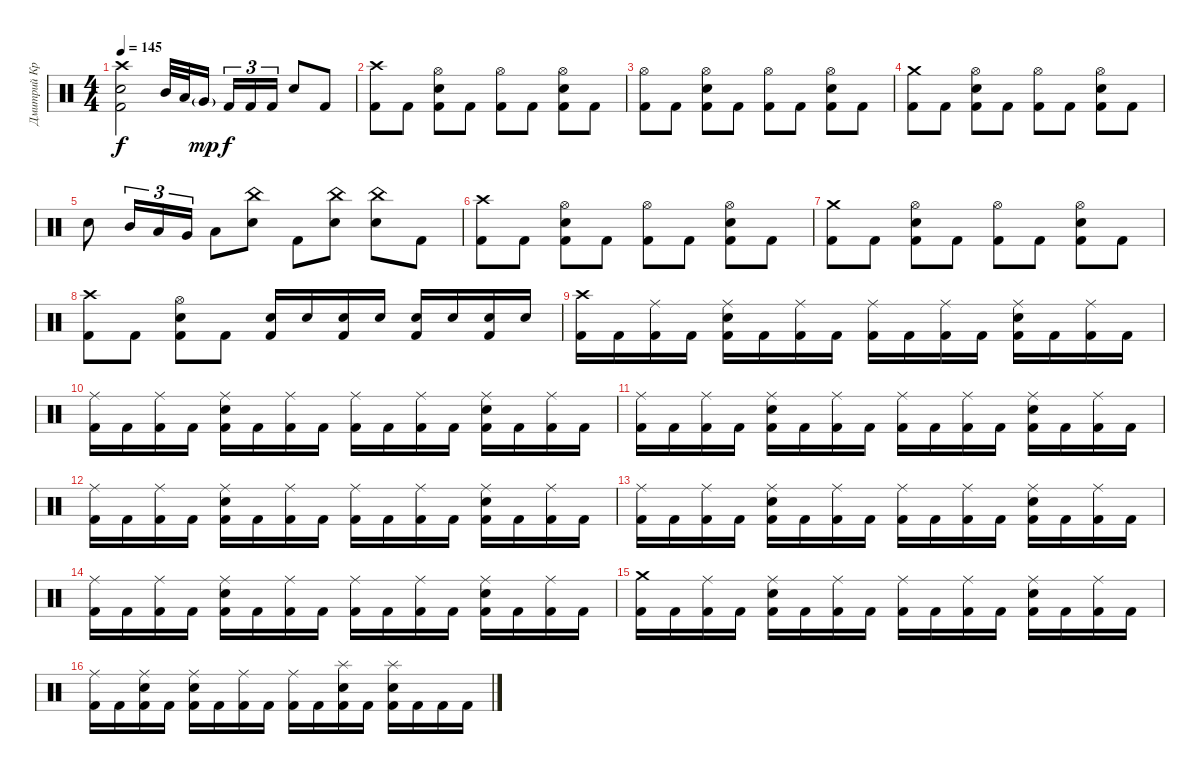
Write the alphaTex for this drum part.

\track ("Дмитрий Кривенков" "Дмитрий Кр") {instrument percussion}
\staff {score}
\articulation defaults
\ts (4 4)
\tempo 145
\clef neutral
\ks c
("Crash high (hit)" "Electric Snare (hit)" "Kick (hit) 2").2{dy f} "Mid Tom (hit)".32 "Low Tom (hit)".32 "Very Low Tom (hit)"{g}.16{dy mp beam splitsecondary} "Kick (hit) 2".16{tu (3 2) dy f} "Kick (hit) 2".16{tu (3 2)} "Kick (hit) 2".16{tu (3 2)} "Electric Snare (hit)".8 "Kick (hit) 2".8 |
("Crash high (hit)" "Kick (hit) 2").8 "Kick (hit) 2".8 ("Hi-Hat (open)" "Electric Snare (hit)" "Kick (hit) 2").8 "Kick (hit) 2".8 ("Hi-Hat (open)" "Kick (hit) 2").8 "Kick (hit) 2".8 ("Hi-Hat (open)" "Electric Snare (hit)" "Kick (hit) 2").8 "Kick (hit) 2".8 |
("Hi-Hat (open)" "Kick (hit) 2").8 "Kick (hit) 2".8 ("Hi-Hat (open)" "Electric Snare (hit)" "Kick (hit) 2").8 "Kick (hit) 2".8 ("Hi-Hat (open)" "Kick (hit) 2").8 "Kick (hit) 2".8 ("Hi-Hat (open)" "Electric Snare (hit)" "Kick (hit) 2").8 "Kick (hit) 2".8 |
("Crash medium (hit)" "Kick (hit) 2").8 "Kick (hit) 2".8 ("Hi-Hat (open)" "Electric Snare (hit)" "Kick (hit) 2").8 "Kick (hit) 2".8 ("Hi-Hat (open)" "Kick (hit) 2").8 "Kick (hit) 2".8 ("Hi-Hat (open)" "Electric Snare (hit)" "Kick (hit) 2").8 "Kick (hit) 2".8 |
"Electric Snare (hit)".8 "Mid Tom (hit)".16{tu (3 2)} "Low Tom (hit)".16{tu (3 2)} "Very Low Tom (hit)".16{tu (3 2)} "Low Floor Tom (hit)".8 ("China (hit)" "Electric Snare (hit)").8 "Kick (hit) 2".8 ("China (hit)" "Electric Snare (hit)").8 ("China (hit)" "Electric Snare (hit)").8 "Kick (hit) 2".8 |
("Crash high (hit)" "Kick (hit) 2").8 "Kick (hit) 2".8 ("Hi-Hat (open)" "Electric Snare (hit)" "Kick (hit) 2").8 "Kick (hit) 2".8 ("Hi-Hat (open)" "Kick (hit) 2").8 "Kick (hit) 2".8 ("Hi-Hat (open)" "Electric Snare (hit)" "Kick (hit) 2").8 "Kick (hit) 2".8 |
("Crash medium (hit)" "Kick (hit) 2").8 "Kick (hit) 2".8 ("Hi-Hat (open)" "Electric Snare (hit)" "Kick (hit) 2").8 "Kick (hit) 2".8 ("Hi-Hat (open)" "Kick (hit) 2").8 "Kick (hit) 2".8 ("Hi-Hat (open)" "Electric Snare (hit)" "Kick (hit) 2").8 "Kick (hit) 2".8 |
("Crash high (hit)" "Kick (hit) 2").8 "Kick (hit) 2".8 ("Hi-Hat (open)" "Electric Snare (hit)" "Kick (hit) 2").8 "Kick (hit) 2".8 ("Electric Snare (hit)" "Kick (hit) 2").16 "Electric Snare (hit)".16 ("Electric Snare (hit)" "Kick (hit) 2").16 "Electric Snare (hit)".16 ("Electric Snare (hit)" "Kick (hit) 2").16 "Electric Snare (hit)".16 ("Electric Snare (hit)" "Kick (hit) 2").16 "Electric Snare (hit)".16 |
("Crash high (hit)" "Kick (hit) 2").16 "Kick (hit) 2".16 ("Ride (middle)" "Kick (hit) 2").16 "Kick (hit) 2".16 ("Ride (middle)" "Electric Snare (hit)" "Kick (hit) 2").16 "Kick (hit) 2".16 ("Ride (middle)" "Kick (hit) 2").16 "Kick (hit) 2".16 ("Ride (middle)" "Kick (hit) 2").16 "Kick (hit) 2".16 ("Ride (middle)" "Kick (hit) 2").16 "Kick (hit) 2".16 ("Ride (middle)" "Electric Snare (hit)" "Kick (hit) 2").16 "Kick (hit) 2".16 ("Ride (middle)" "Kick (hit) 2").16 "Kick (hit) 2".16 |
("Ride (middle)" "Kick (hit) 2").16 "Kick (hit) 2".16 ("Ride (middle)" "Kick (hit) 2").16 "Kick (hit) 2".16 ("Ride (middle)" "Electric Snare (hit)" "Kick (hit) 2").16 "Kick (hit) 2".16 ("Ride (middle)" "Kick (hit) 2").16 "Kick (hit) 2".16 ("Ride (middle)" "Kick (hit) 2").16 "Kick (hit) 2".16 ("Ride (middle)" "Kick (hit) 2").16 "Kick (hit) 2".16 ("Ride (middle)" "Electric Snare (hit)" "Kick (hit) 2").16 "Kick (hit) 2".16 ("Ride (middle)" "Kick (hit) 2").16 "Kick (hit) 2".16 |
("Ride (middle)" "Kick (hit) 2").16 "Kick (hit) 2".16 ("Ride (middle)" "Kick (hit) 2").16 "Kick (hit) 2".16 ("Ride (middle)" "Electric Snare (hit)" "Kick (hit) 2").16 "Kick (hit) 2".16 ("Ride (middle)" "Kick (hit) 2").16 "Kick (hit) 2".16 ("Ride (middle)" "Kick (hit) 2").16 "Kick (hit) 2".16 ("Ride (middle)" "Kick (hit) 2").16 "Kick (hit) 2".16 ("Ride (middle)" "Electric Snare (hit)" "Kick (hit) 2").16 "Kick (hit) 2".16 ("Ride (middle)" "Kick (hit) 2").16 "Kick (hit) 2".16 |
("Ride (middle)" "Kick (hit) 2").16 "Kick (hit) 2".16 ("Ride (middle)" "Kick (hit) 2").16 "Kick (hit) 2".16 ("Ride (middle)" "Electric Snare (hit)" "Kick (hit) 2").16 "Kick (hit) 2".16 ("Ride (middle)" "Kick (hit) 2").16 "Kick (hit) 2".16 ("Ride (middle)" "Kick (hit) 2").16 "Kick (hit) 2".16 ("Ride (middle)" "Kick (hit) 2").16 "Kick (hit) 2".16 ("Ride (middle)" "Electric Snare (hit)" "Kick (hit) 2").16 "Kick (hit) 2".16 ("Ride (middle)" "Kick (hit) 2").16 "Kick (hit) 2".16 |
("Ride (middle)" "Kick (hit) 2").16 "Kick (hit) 2".16 ("Ride (middle)" "Kick (hit) 2").16 "Kick (hit) 2".16 ("Ride (middle)" "Electric Snare (hit)" "Kick (hit) 2").16 "Kick (hit) 2".16 ("Ride (middle)" "Kick (hit) 2").16 "Kick (hit) 2".16 ("Ride (middle)" "Kick (hit) 2").16 "Kick (hit) 2".16 ("Ride (middle)" "Kick (hit) 2").16 "Kick (hit) 2".16 ("Ride (middle)" "Electric Snare (hit)" "Kick (hit) 2").16 "Kick (hit) 2".16 ("Ride (middle)" "Kick (hit) 2").16 "Kick (hit) 2".16 |
("Ride (middle)" "Kick (hit) 2").16 "Kick (hit) 2".16 ("Ride (middle)" "Kick (hit) 2").16 "Kick (hit) 2".16 ("Ride (middle)" "Electric Snare (hit)" "Kick (hit) 2").16 "Kick (hit) 2".16 ("Ride (middle)" "Kick (hit) 2").16 "Kick (hit) 2".16 ("Ride (middle)" "Kick (hit) 2").16 "Kick (hit) 2".16 ("Ride (middle)" "Kick (hit) 2").16 "Kick (hit) 2".16 ("Ride (middle)" "Electric Snare (hit)" "Kick (hit) 2").16 "Kick (hit) 2".16 ("Ride (middle)" "Kick (hit) 2").16 "Kick (hit) 2".16 |
("Crash medium (hit)" "Kick (hit) 2").16 "Kick (hit) 2".16 ("Ride (middle)" "Kick (hit) 2").16 "Kick (hit) 2".16 ("Ride (middle)" "Electric Snare (hit)" "Kick (hit) 2").16 "Kick (hit) 2".16 ("Ride (middle)" "Kick (hit) 2").16 "Kick (hit) 2".16 ("Ride (middle)" "Kick (hit) 2").16 "Kick (hit) 2".16 ("Ride (middle)" "Kick (hit) 2").16 "Kick (hit) 2".16 ("Ride (middle)" "Electric Snare (hit)" "Kick (hit) 2").16 "Kick (hit) 2".16 ("Ride (middle)" "Kick (hit) 2").16 "Kick (hit) 2".16 |
("Ride (middle)" "Kick (hit) 2").16 "Kick (hit) 2".16 ("Ride (middle)" "Electric Snare (hit)" "Kick (hit) 2").16 "Kick (hit) 2".16 ("Ride (middle)" "Electric Snare (hit)" "Kick (hit) 2").16 "Kick (hit) 2".16 ("Ride (middle)" "Kick (hit) 2").16 "Kick (hit) 2".16 ("Ride (middle)" "Kick (hit) 2").16 "Kick (hit) 2".16 ("Splash (hit)" "Electric Snare (hit)" "Kick (hit) 2").16 "Kick (hit) 2".16 ("Splash (hit)" "Electric Snare (hit)" "Kick (hit) 2").16 "Kick (hit) 2".16 "Kick (hit) 2".16 "Kick (hit) 2".16
